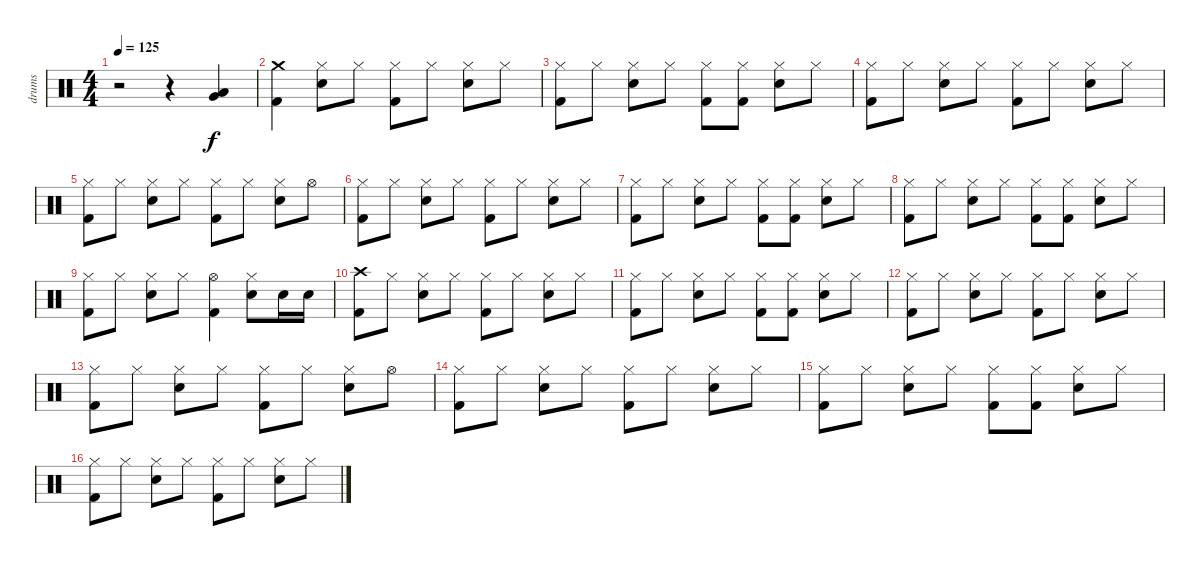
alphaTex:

\track ("drums" "drums") {instrument percussion}
\staff {score}
\articulation defaults
\ts (4 4)
\tempo 125
\clef neutral
\ks c
r.2{dy f} r.4 ("Very Low Tom (hit)" "Low Floor Tom (hit)").4 |
("Crash medium (hit)" "Kick (hit) 2").4 ("Hi-Hat (closed)" "Electric Snare (hit)").8 "Hi-Hat (closed)".8 ("Hi-Hat (closed)" "Kick (hit) 2").8 "Hi-Hat (closed)".8 ("Hi-Hat (closed)" "Electric Snare (hit)").8 "Hi-Hat (closed)".8 |
("Hi-Hat (closed)" "Kick (hit) 2").8 "Hi-Hat (closed)".8 ("Hi-Hat (closed)" "Electric Snare (hit)").8 "Hi-Hat (closed)".8 ("Hi-Hat (closed)" "Kick (hit) 2").8 ("Hi-Hat (closed)" "Kick (hit) 2").8 ("Hi-Hat (closed)" "Electric Snare (hit)").8 "Hi-Hat (closed)".8 |
("Hi-Hat (closed)" "Kick (hit) 2").8 "Hi-Hat (closed)".8 ("Hi-Hat (closed)" "Electric Snare (hit)").8 "Hi-Hat (closed)".8 ("Hi-Hat (closed)" "Kick (hit) 2").8 "Hi-Hat (closed)".8 ("Hi-Hat (closed)" "Electric Snare (hit)").8 "Hi-Hat (closed)".8 |
("Hi-Hat (closed)" "Kick (hit) 2").8 "Hi-Hat (closed)".8 ("Hi-Hat (closed)" "Electric Snare (hit)").8 "Hi-Hat (closed)".8 ("Hi-Hat (closed)" "Kick (hit) 2").8 "Hi-Hat (closed)".8 ("Hi-Hat (closed)" "Electric Snare (hit)").8 "Hi-Hat (open)".8 |
("Hi-Hat (closed)" "Kick (hit) 2").8 "Hi-Hat (closed)".8 ("Hi-Hat (closed)" "Electric Snare (hit)").8 "Hi-Hat (closed)".8 ("Hi-Hat (closed)" "Kick (hit) 2").8 "Hi-Hat (closed)".8 ("Hi-Hat (closed)" "Electric Snare (hit)").8 "Hi-Hat (closed)".8 |
("Hi-Hat (closed)" "Kick (hit) 2").8 "Hi-Hat (closed)".8 ("Hi-Hat (closed)" "Electric Snare (hit)").8 "Hi-Hat (closed)".8 ("Hi-Hat (closed)" "Kick (hit) 2").8 ("Hi-Hat (closed)" "Kick (hit) 2").8 ("Hi-Hat (closed)" "Electric Snare (hit)").8 "Hi-Hat (closed)".8 |
("Hi-Hat (closed)" "Kick (hit) 2").8 "Hi-Hat (closed)".8 ("Hi-Hat (closed)" "Electric Snare (hit)").8 "Hi-Hat (closed)".8 ("Hi-Hat (closed)" "Kick (hit) 2").8 ("Hi-Hat (closed)" "Kick (hit) 2").8 ("Hi-Hat (closed)" "Electric Snare (hit)").8 "Hi-Hat (closed)".8 |
("Hi-Hat (closed)" "Kick (hit) 2").8 "Hi-Hat (closed)".8 ("Hi-Hat (closed)" "Electric Snare (hit)").8 "Hi-Hat (closed)".8 ("Hi-Hat (open)" "Kick (hit) 2").4 ("Hi-Hat (closed)" "Electric Snare (hit)").8 "Electric Snare (hit)".16 "Electric Snare (hit)".16 |
("Crash high (hit)" "Kick (hit) 2").8 "Hi-Hat (closed)".8 ("Hi-Hat (closed)" "Electric Snare (hit)").8 "Hi-Hat (closed)".8 ("Hi-Hat (closed)" "Kick (hit) 2").8 "Hi-Hat (closed)".8 ("Hi-Hat (closed)" "Electric Snare (hit)").8 "Hi-Hat (closed)".8 |
("Hi-Hat (closed)" "Kick (hit) 2").8 "Hi-Hat (closed)".8 ("Hi-Hat (closed)" "Electric Snare (hit)").8 "Hi-Hat (closed)".8 ("Hi-Hat (closed)" "Kick (hit) 2").8 ("Hi-Hat (closed)" "Kick (hit) 2").8 ("Hi-Hat (closed)" "Electric Snare (hit)").8 "Hi-Hat (closed)".8 |
("Hi-Hat (closed)" "Kick (hit) 2").8 "Hi-Hat (closed)".8 ("Hi-Hat (closed)" "Electric Snare (hit)").8 "Hi-Hat (closed)".8 ("Hi-Hat (closed)" "Kick (hit) 2").8 "Hi-Hat (closed)".8 ("Hi-Hat (closed)" "Electric Snare (hit)").8 "Hi-Hat (closed)".8 |
("Hi-Hat (closed)" "Kick (hit) 2").8 "Hi-Hat (closed)".8 ("Hi-Hat (closed)" "Electric Snare (hit)").8 "Hi-Hat (closed)".8 ("Hi-Hat (closed)" "Kick (hit) 2").8 "Hi-Hat (closed)".8 ("Hi-Hat (closed)" "Electric Snare (hit)").8 "Hi-Hat (open)".8 |
("Hi-Hat (closed)" "Kick (hit) 2").8 "Hi-Hat (closed)".8 ("Hi-Hat (closed)" "Electric Snare (hit)").8 "Hi-Hat (closed)".8 ("Hi-Hat (closed)" "Kick (hit) 2").8 "Hi-Hat (closed)".8 ("Hi-Hat (closed)" "Electric Snare (hit)").8 "Hi-Hat (closed)".8 |
("Hi-Hat (closed)" "Kick (hit) 2").8 "Hi-Hat (closed)".8 ("Hi-Hat (closed)" "Electric Snare (hit)").8 "Hi-Hat (closed)".8 ("Hi-Hat (closed)" "Kick (hit) 2").8 ("Hi-Hat (closed)" "Kick (hit) 2").8 ("Hi-Hat (closed)" "Electric Snare (hit)").8 "Hi-Hat (closed)".8 |
("Hi-Hat (closed)" "Kick (hit) 2").8 "Hi-Hat (closed)".8 ("Hi-Hat (closed)" "Electric Snare (hit)").8 "Hi-Hat (closed)".8 ("Hi-Hat (closed)" "Kick (hit) 2").8 "Hi-Hat (closed)".8 ("Hi-Hat (closed)" "Electric Snare (hit)").8 "Hi-Hat (closed)".8
